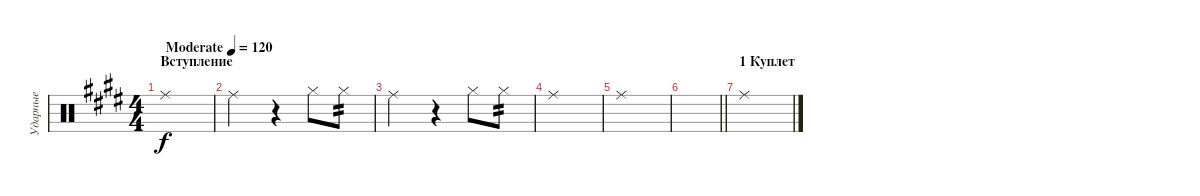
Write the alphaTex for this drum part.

\track ("Ударные" "Ударные") {instrument percussion}
\staff {score}
\articulation defaults
\ts (4 4)
\section ("" "Вступление")
\tempo (120 "Moderate")
\clef neutral
\ks e "Ride (middle)".1{dy f}
|
"Ride (middle)".2 r.4 "Hi-Hat (closed)".8 "Hi-Hat (closed)".8{tp 2} |
"Ride (middle)".2 r.4 "Hi-Hat (closed)".8 "Hi-Hat (closed)".8{tp 2} |
"Ride (middle)".1 |
"Ride (middle)".1 |
\barLineRight lightlight
|
\section ("" "1 Куплет")
"Ride (middle)".1
